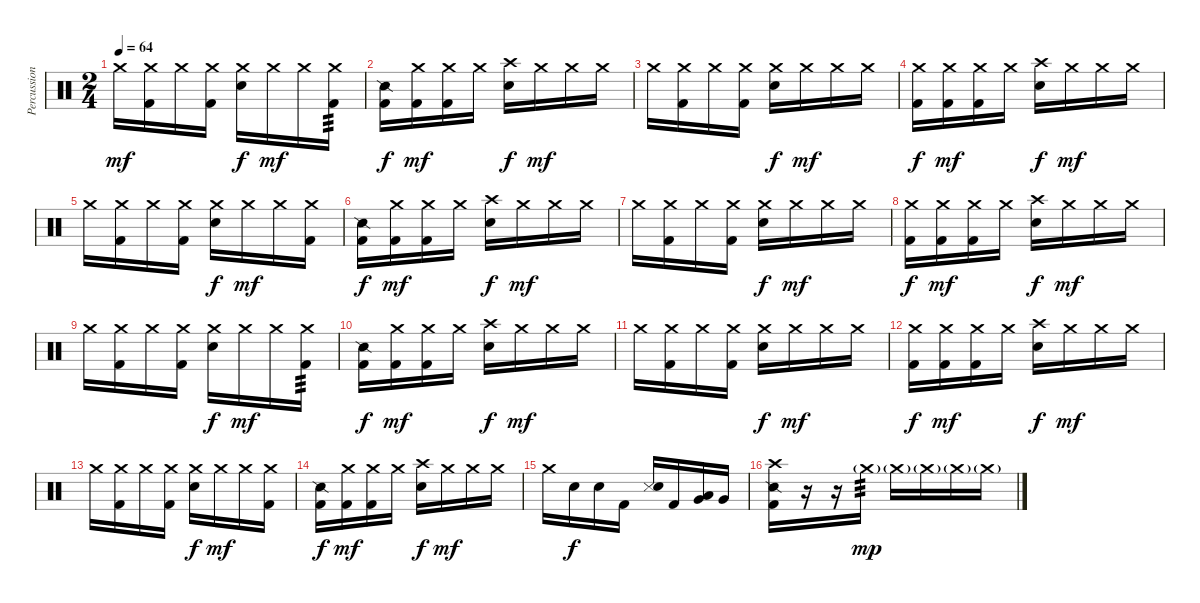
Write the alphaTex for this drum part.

\track ("Percussion" "Percussion") {instrument percussion}
\staff {score}
\articulation defaults
\ts (2 4)
\tempo 64
\clef neutral
\ks c "Crash medium (hit)".16{dy mf}
("Crash medium (hit)" "Kick (hit) 2").16 "Crash medium (hit)".16 ("Crash medium (hit)" "Kick (hit) 2").16 ("Crash medium (hit)" "Snare (hit) 2").16{dy f} "Crash medium (hit)".16{dy mf} "Crash medium (hit)".16 ("Crash medium (hit)" "Kick (hit) 2").16{tp 3} |
("Snare (side stick) 2" "Kick (hit) 2").16{dy f} ("Crash medium (hit)" "Kick (hit) 2").16{dy mf} ("Crash medium (hit)" "Kick (hit) 2").16 "Crash medium (hit)".16 ("Crash high (hit)" "Snare (hit) 2").16{dy f} "Crash medium (hit)".16{dy mf} "Crash medium (hit)".16 "Crash medium (hit)".16 |
"Crash medium (hit)".16 ("Crash medium (hit)" "Kick (hit) 2").16 "Crash medium (hit)".16 ("Crash medium (hit)" "Kick (hit) 2").16 ("Crash medium (hit)" "Snare (hit) 2").16{dy f} "Crash medium (hit)".16{dy mf} "Crash medium (hit)".16 "Crash medium (hit)".16 |
("Crash medium (hit)" "Kick (hit) 2").16{dy f} ("Crash medium (hit)" "Kick (hit) 2").16{dy mf} ("Crash medium (hit)" "Kick (hit) 2").16 "Crash medium (hit)".16 ("Crash high (hit)" "Snare (hit) 2").16{dy f} "Crash medium (hit)".16{dy mf} "Crash medium (hit)".16 "Crash medium (hit)".16 |
"Crash medium (hit)".16 ("Crash medium (hit)" "Kick (hit) 2").16 "Crash medium (hit)".16 ("Crash medium (hit)" "Kick (hit) 2").16 ("Crash medium (hit)" "Snare (hit) 2").16{dy f} "Crash medium (hit)".16{dy mf} "Crash medium (hit)".16 ("Crash medium (hit)" "Kick (hit) 2").16 |
("Snare (side stick) 2" "Kick (hit) 2").16{dy f} ("Crash medium (hit)" "Kick (hit) 2").16{dy mf} ("Crash medium (hit)" "Kick (hit) 2").16 "Crash medium (hit)".16 ("Crash high (hit)" "Snare (hit) 2").16{dy f} "Crash medium (hit)".16{dy mf} "Crash medium (hit)".16 "Crash medium (hit)".16 |
"Crash medium (hit)".16 ("Crash medium (hit)" "Kick (hit) 2").16 "Crash medium (hit)".16 ("Crash medium (hit)" "Kick (hit) 2").16 ("Crash medium (hit)" "Snare (hit) 2").16{dy f} "Crash medium (hit)".16{dy mf} "Crash medium (hit)".16 "Crash medium (hit)".16 |
("Crash medium (hit)" "Kick (hit) 2").16{dy f} ("Crash medium (hit)" "Kick (hit) 2").16{dy mf} ("Crash medium (hit)" "Kick (hit) 2").16 "Crash medium (hit)".16 ("Crash high (hit)" "Snare (hit) 2").16{dy f} "Crash medium (hit)".16{dy mf} "Crash medium (hit)".16 "Crash medium (hit)".16 |
"Crash medium (hit)".16 ("Crash medium (hit)" "Kick (hit) 2").16 "Crash medium (hit)".16 ("Crash medium (hit)" "Kick (hit) 2").16 ("Crash medium (hit)" "Snare (hit) 2").16{dy f} "Crash medium (hit)".16{dy mf} "Crash medium (hit)".16 ("Crash medium (hit)" "Kick (hit) 2").16{tp 3} |
("Snare (side stick) 2" "Kick (hit) 2").16{dy f} ("Crash medium (hit)" "Kick (hit) 2").16{dy mf} ("Crash medium (hit)" "Kick (hit) 2").16 "Crash medium (hit)".16 ("Crash high (hit)" "Snare (hit) 2").16{dy f} "Crash medium (hit)".16{dy mf} "Crash medium (hit)".16 "Crash medium (hit)".16 |
"Crash medium (hit)".16 ("Crash medium (hit)" "Kick (hit) 2").16 "Crash medium (hit)".16 ("Crash medium (hit)" "Kick (hit) 2").16 ("Crash medium (hit)" "Snare (hit) 2").16{dy f} "Crash medium (hit)".16{dy mf} "Crash medium (hit)".16 "Crash medium (hit)".16 |
("Crash medium (hit)" "Kick (hit) 2").16{dy f} ("Crash medium (hit)" "Kick (hit) 2").16{dy mf} ("Crash medium (hit)" "Kick (hit) 2").16 "Crash medium (hit)".16 ("Crash high (hit)" "Snare (hit) 2").16{dy f} "Crash medium (hit)".16{dy mf} "Crash medium (hit)".16 "Crash medium (hit)".16 |
"Crash medium (hit)".16 ("Crash medium (hit)" "Kick (hit) 2").16 "Crash medium (hit)".16 ("Crash medium (hit)" "Kick (hit) 2").16 ("Crash medium (hit)" "Snare (hit) 2").16{dy f} "Crash medium (hit)".16{dy mf} "Crash medium (hit)".16 ("Crash medium (hit)" "Kick (hit) 2").16 |
("Snare (side stick) 2" "Kick (hit) 2").16{dy f} ("Crash medium (hit)" "Kick (hit) 2").16{dy mf} ("Crash medium (hit)" "Kick (hit) 2").16 "Crash medium (hit)".16 ("Crash high (hit)" "Snare (hit) 2").16{dy f} "Crash medium (hit)".16{dy mf} "Crash medium (hit)".16 "Crash medium (hit)".16 |
"Crash medium (hit)".16 "Snare (hit) 2".16{dy f} "Snare (hit) 2".16 "Kick (hit) 2".16 ("Metronome (hit)" "Snare (hit) 2").16{bu 60} "Kick (hit) 2".16 ("Low Tom (hit)" "Very Low Tom (hit)").16{bu 60} "Very Low Tom (hit)".16 |
("Crash high (hit)" "Snare (side stick) 2" "Kick (hit) 2").16 r.16 r.16 "Crash medium (hit)"{g}.16{tp 3 dy mp} "Crash medium (hit)"{g}.16 "Crash medium (hit)"{g}.16 "Crash medium (hit)"{g}.16 "Crash medium (hit)"{g}.16
